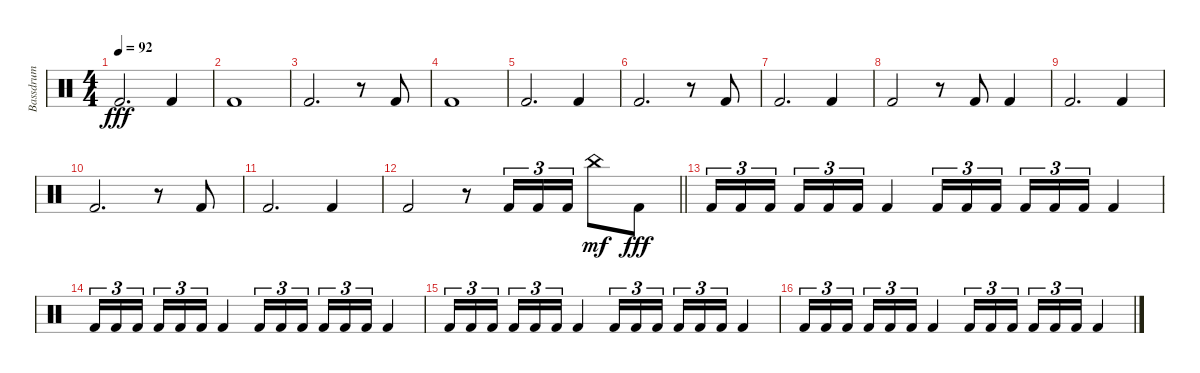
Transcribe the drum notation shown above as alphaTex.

\track ("Bassdrum" "Bassdrum") {instrument percussion}
\staff {score}
\articulation defaults
\ts (4 4)
\tempo 92
\clef neutral
\ks c "Kick (hit) 2".2{d dy fff} "Kick (hit) 2".4
|
"Kick (hit) 2".1 |
"Kick (hit) 2".2{d} r.8 "Kick (hit) 2".8 |
"Kick (hit) 2".1 |
"Kick (hit) 2".2{d} "Kick (hit) 2".4 |
"Kick (hit) 2".2{d} r.8 "Kick (hit) 2".8 |
"Kick (hit) 2".2{d} "Kick (hit) 2".4 |
"Kick (hit) 2".2 r.8 "Kick (hit) 2".8 "Kick (hit) 2".4 |
"Kick (hit) 2".2{d} "Kick (hit) 2".4 |
"Kick (hit) 2".2{d} r.8 "Kick (hit) 2".8 |
"Kick (hit) 2".2{d} "Kick (hit) 2".4 |
\barLineRight lightlight "Kick (hit) 2".2
r.8 "Kick (hit) 2".16{tu (3 2)} "Kick (hit) 2".16{tu (3 2)} "Kick (hit) 2".16{tu (3 2)} "China (hit)".8{dy mf} "Kick (hit) 2".8{dy fff} |
\section ("" "")
"Kick (hit) 2".16{tu (3 2)} "Kick (hit) 2".16{tu (3 2)} "Kick (hit) 2".16{tu (3 2) beam splitsecondary} "Kick (hit) 2".16{tu (3 2)} "Kick (hit) 2".16{tu (3 2)} "Kick (hit) 2".16{tu (3 2)} "Kick (hit) 2".4 "Kick (hit) 2".16{tu (3 2)} "Kick (hit) 2".16{tu (3 2)} "Kick (hit) 2".16{tu (3 2) beam splitsecondary} "Kick (hit) 2".16{tu (3 2)} "Kick (hit) 2".16{tu (3 2)} "Kick (hit) 2".16{tu (3 2)} "Kick (hit) 2".4 |
"Kick (hit) 2".16{tu (3 2)} "Kick (hit) 2".16{tu (3 2)} "Kick (hit) 2".16{tu (3 2) beam splitsecondary} "Kick (hit) 2".16{tu (3 2)} "Kick (hit) 2".16{tu (3 2)} "Kick (hit) 2".16{tu (3 2)} "Kick (hit) 2".4 "Kick (hit) 2".16{tu (3 2)} "Kick (hit) 2".16{tu (3 2)} "Kick (hit) 2".16{tu (3 2) beam splitsecondary} "Kick (hit) 2".16{tu (3 2)} "Kick (hit) 2".16{tu (3 2)} "Kick (hit) 2".16{tu (3 2)} "Kick (hit) 2".4 |
"Kick (hit) 2".16{tu (3 2)} "Kick (hit) 2".16{tu (3 2)} "Kick (hit) 2".16{tu (3 2) beam splitsecondary} "Kick (hit) 2".16{tu (3 2)} "Kick (hit) 2".16{tu (3 2)} "Kick (hit) 2".16{tu (3 2)} "Kick (hit) 2".4 "Kick (hit) 2".16{tu (3 2)} "Kick (hit) 2".16{tu (3 2)} "Kick (hit) 2".16{tu (3 2) beam splitsecondary} "Kick (hit) 2".16{tu (3 2)} "Kick (hit) 2".16{tu (3 2)} "Kick (hit) 2".16{tu (3 2)} "Kick (hit) 2".4 |
"Kick (hit) 2".16{tu (3 2)} "Kick (hit) 2".16{tu (3 2)} "Kick (hit) 2".16{tu (3 2) beam splitsecondary} "Kick (hit) 2".16{tu (3 2)} "Kick (hit) 2".16{tu (3 2)} "Kick (hit) 2".16{tu (3 2)} "Kick (hit) 2".4 "Kick (hit) 2".16{tu (3 2)} "Kick (hit) 2".16{tu (3 2)} "Kick (hit) 2".16{tu (3 2) beam splitsecondary} "Kick (hit) 2".16{tu (3 2)} "Kick (hit) 2".16{tu (3 2)} "Kick (hit) 2".16{tu (3 2)} "Kick (hit) 2".4
